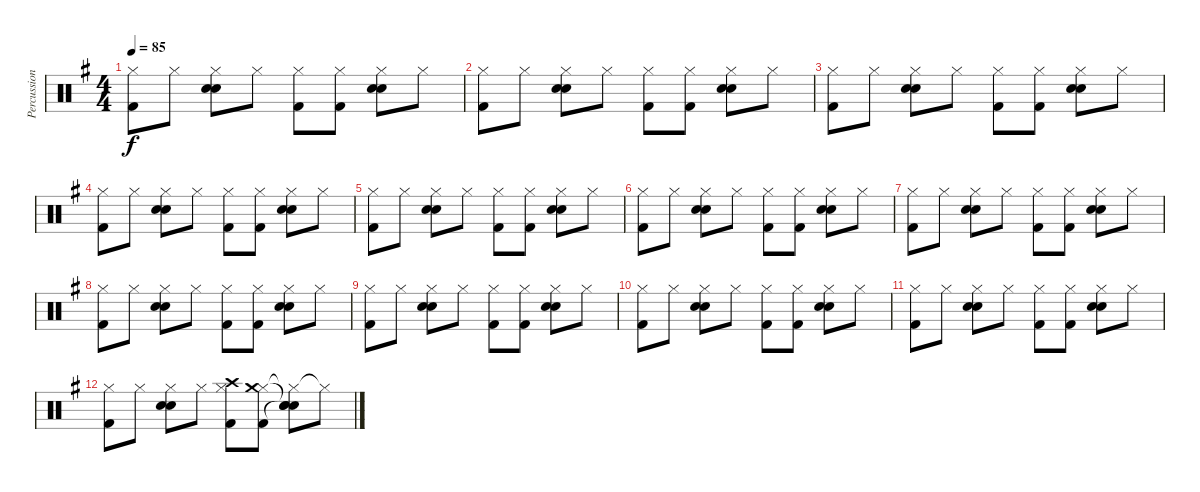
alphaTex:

\track ("Percussions" "Percussion") {instrument percussion}
\staff {score}
\articulation defaults
\ts (4 4)
\tempo 85
\clef neutral
\ks g
("Hi-Hat (closed)" "Kick (hit) 2").8{dy f} "Hi-Hat (closed)".8 ("Hi-Hat (closed)" "Hand Clap (hit)" "Snare (hit) 2").8 "Hi-Hat (closed)".8 ("Hi-Hat (closed)" "Kick (hit) 2").8 ("Hi-Hat (closed)" "Kick (hit) 2").8 ("Hi-Hat (closed)" "Hand Clap (hit)" "Snare (hit) 2").8 "Hi-Hat (closed)".8 |
("Hi-Hat (closed)" "Kick (hit) 2").8 "Hi-Hat (closed)".8 ("Hi-Hat (closed)" "Hand Clap (hit)" "Snare (hit) 2").8 "Hi-Hat (closed)".8 ("Hi-Hat (closed)" "Kick (hit) 2").8 ("Hi-Hat (closed)" "Kick (hit) 2").8 ("Hi-Hat (closed)" "Hand Clap (hit)" "Snare (hit) 2").8 "Hi-Hat (closed)".8 |
("Hi-Hat (closed)" "Kick (hit) 2").8 "Hi-Hat (closed)".8 ("Hi-Hat (closed)" "Hand Clap (hit)" "Snare (hit) 2").8 "Hi-Hat (closed)".8 ("Hi-Hat (closed)" "Kick (hit) 2").8 ("Hi-Hat (closed)" "Kick (hit) 2").8 ("Hi-Hat (closed)" "Hand Clap (hit)" "Snare (hit) 2").8 "Hi-Hat (closed)".8 |
("Hi-Hat (closed)" "Kick (hit) 2").8 "Hi-Hat (closed)".8 ("Hi-Hat (closed)" "Hand Clap (hit)" "Snare (hit) 2").8 "Hi-Hat (closed)".8 ("Hi-Hat (closed)" "Kick (hit) 2").8 ("Hi-Hat (closed)" "Kick (hit) 2").8 ("Hi-Hat (closed)" "Hand Clap (hit)" "Snare (hit) 2").8 "Hi-Hat (closed)".8 |
("Hi-Hat (closed)" "Kick (hit) 2").8 "Hi-Hat (closed)".8 ("Hi-Hat (closed)" "Hand Clap (hit)" "Snare (hit) 2").8 "Hi-Hat (closed)".8 ("Hi-Hat (closed)" "Kick (hit) 2").8 ("Hi-Hat (closed)" "Kick (hit) 2").8 ("Hi-Hat (closed)" "Hand Clap (hit)" "Snare (hit) 2").8 "Hi-Hat (closed)".8 |
("Hi-Hat (closed)" "Kick (hit) 2").8 "Hi-Hat (closed)".8 ("Hi-Hat (closed)" "Hand Clap (hit)" "Snare (hit) 2").8 "Hi-Hat (closed)".8 ("Hi-Hat (closed)" "Kick (hit) 2").8 ("Hi-Hat (closed)" "Kick (hit) 2").8 ("Hi-Hat (closed)" "Hand Clap (hit)" "Snare (hit) 2").8 "Hi-Hat (closed)".8 |
("Hi-Hat (closed)" "Kick (hit) 2").8 "Hi-Hat (closed)".8 ("Hi-Hat (closed)" "Hand Clap (hit)" "Snare (hit) 2").8 "Hi-Hat (closed)".8 ("Hi-Hat (closed)" "Kick (hit) 2").8 ("Hi-Hat (closed)" "Kick (hit) 2").8 ("Hi-Hat (closed)" "Hand Clap (hit)" "Snare (hit) 2").8 "Hi-Hat (closed)".8 |
("Hi-Hat (closed)" "Kick (hit) 2").8 "Hi-Hat (closed)".8 ("Hi-Hat (closed)" "Hand Clap (hit)" "Snare (hit) 2").8 "Hi-Hat (closed)".8 ("Hi-Hat (closed)" "Kick (hit) 2").8 ("Hi-Hat (closed)" "Kick (hit) 2").8 ("Hi-Hat (closed)" "Hand Clap (hit)" "Snare (hit) 2").8 "Hi-Hat (closed)".8 |
("Hi-Hat (closed)" "Kick (hit) 2").8 "Hi-Hat (closed)".8 ("Hi-Hat (closed)" "Hand Clap (hit)" "Snare (hit) 2").8 "Hi-Hat (closed)".8 ("Hi-Hat (closed)" "Kick (hit) 2").8 ("Hi-Hat (closed)" "Kick (hit) 2").8 ("Hi-Hat (closed)" "Hand Clap (hit)" "Snare (hit) 2").8 "Hi-Hat (closed)".8 |
("Hi-Hat (closed)" "Kick (hit) 2").8 "Hi-Hat (closed)".8 ("Hi-Hat (closed)" "Hand Clap (hit)" "Snare (hit) 2").8 "Hi-Hat (closed)".8 ("Hi-Hat (closed)" "Kick (hit) 2").8 ("Hi-Hat (closed)" "Kick (hit) 2").8 ("Hi-Hat (closed)" "Hand Clap (hit)" "Snare (hit) 2").8 "Hi-Hat (closed)".8 |
("Hi-Hat (closed)" "Kick (hit) 2").8 "Hi-Hat (closed)".8 ("Hi-Hat (closed)" "Hand Clap (hit)" "Snare (hit) 2").8 "Hi-Hat (closed)".8 ("Hi-Hat (closed)" "Kick (hit) 2").8 ("Hi-Hat (closed)" "Kick (hit) 2").8 ("Hi-Hat (closed)" "Hand Clap (hit)" "Snare (hit) 2").8 "Hi-Hat (closed)".8 |
("Hi-Hat (closed)" "Kick (hit) 2").8 "Hi-Hat (closed)".8 ("Hi-Hat (closed)" "Hand Clap (hit)" "Snare (hit) 2").8 "Hi-Hat (closed)".8 ("Hi-Hat (closed)" "Crash high (hit)" "Kick (hit) 2").8 ("Hi-Hat (closed)" "Crash medium (hit)" "Kick (hit) 2").8 ("Hi-Hat (closed)"{t} "Snare (hit)"{t} "Hand Clap (hit)"{t} "Snare (hit) 2").8 "Hi-Hat (closed)"{t}.8
